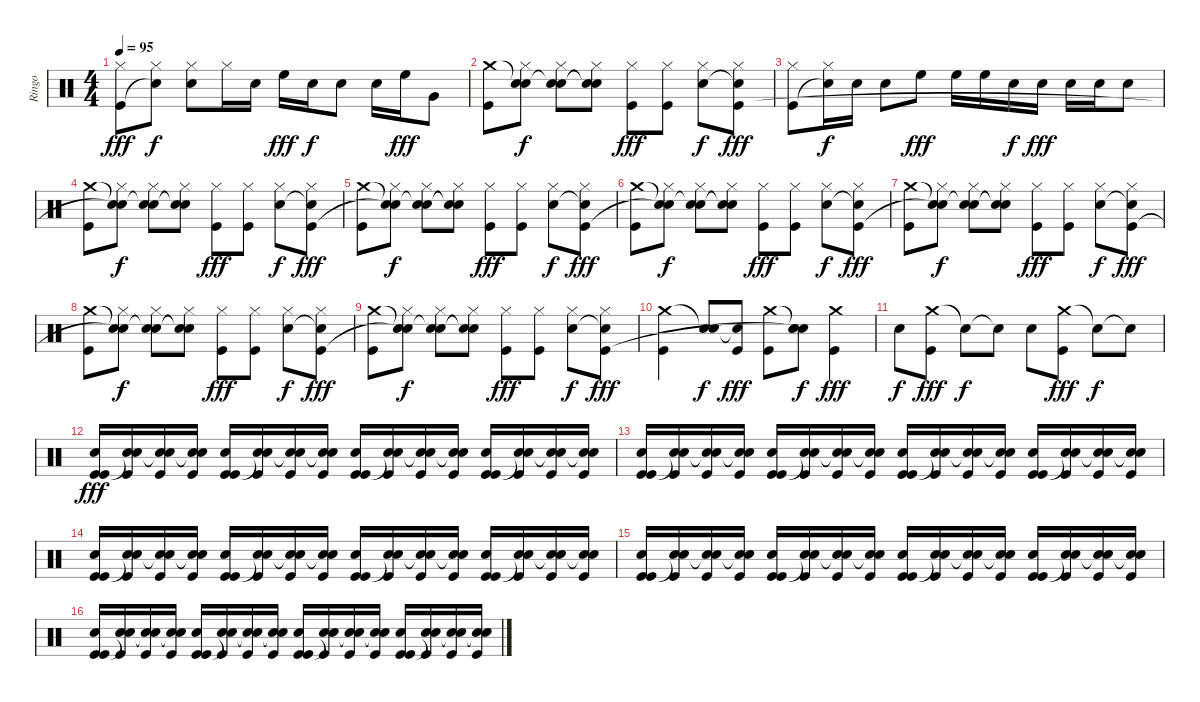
\track ("Ringo" "Ringo") {instrument percussion}
\staff {score}
\articulation defaults
\ts (4 4)
\tempo 95
\clef neutral
\ks c
("Hi-Hat (closed)" "Kick (hit)").8{dy fff} ("Hi-Hat (closed)" "Snare (hit)"{t}).8{dy f} ("Hi-Hat (closed)" "Electric Snare (hit)").8 "Hi-Hat (closed)".16 "Electric Snare (hit)".16 "High Floor Tom (hit)".16{dy fff} "Electric Snare (hit)".16{dy f} "Electric Snare (hit)".8 "Electric Snare (hit)".16 "High Floor Tom (hit)".16{dy fff} "Very Low Tom (hit)".8 |
("Crash medium (hit)" "Kick (hit)").8 ("Snare (hit)"{t} "Hi-Hat (closed)" "Snare (hit)"{t}).8{dy f} ("Snare (hit)"{t} "Hi-Hat (closed)" "Electric Snare (hit)").8 ("Snare (hit)"{t} "Hi-Hat (closed)" "Snare (hit)"{t}).8 ("Hi-Hat (closed)" "Kick (hit)").8{dy fff} ("Hi-Hat (closed)" "Kick (hit)").8 ("Hi-Hat (closed)" "Electric Snare (hit)").8{dy f} ("Hi-Hat (closed)" "Snare (hit)"{t} "Kick (hit)").8{dy fff} |
("Hi-Hat (closed)" "Kick (hit)").8 ("Hi-Hat (closed)" "Snare (hit)"{t}).16{dy f} "Electric Snare (hit)".16 "Electric Snare (hit)".8 "High Floor Tom (hit)".8{dy fff} "High Floor Tom (hit)".16 "High Floor Tom (hit)".16 "Electric Snare (hit)".16{dy f} "Electric Snare (hit)".16{dy fff} "Electric Snare (hit)".16 "Electric Snare (hit)".16 "Electric Snare (hit)".8 |
("Crash medium (hit)" "Kick (hit)").8 ("Snare (hit)"{t} "Hi-Hat (closed)" "Snare (hit)"{t}).8{dy f} ("Snare (hit)"{t} "Hi-Hat (closed)" "Electric Snare (hit)").8 ("Snare (hit)"{t} "Hi-Hat (closed)" "Snare (hit)"{t}).8 ("Hi-Hat (closed)" "Kick (hit)").8{dy fff} ("Hi-Hat (closed)" "Kick (hit)").8 ("Hi-Hat (closed)" "Electric Snare (hit)").8{dy f} ("Hi-Hat (closed)" "Snare (hit)"{t} "Kick (hit)").8{dy fff} |
("Crash medium (hit)" "Kick (hit)").8 ("Snare (hit)"{t} "Hi-Hat (closed)" "Snare (hit)"{t}).8{dy f} ("Snare (hit)"{t} "Hi-Hat (closed)" "Electric Snare (hit)").8 ("Snare (hit)"{t} "Hi-Hat (closed)" "Snare (hit)"{t}).8 ("Hi-Hat (closed)" "Kick (hit)").8{dy fff} ("Hi-Hat (closed)" "Kick (hit)").8 ("Hi-Hat (closed)" "Electric Snare (hit)").8{dy f} ("Hi-Hat (closed)" "Snare (hit)"{t} "Kick (hit)").8{dy fff} |
("Crash medium (hit)" "Kick (hit)").8 ("Snare (hit)"{t} "Hi-Hat (closed)" "Snare (hit)"{t}).8{dy f} ("Snare (hit)"{t} "Hi-Hat (closed)" "Electric Snare (hit)").8 ("Snare (hit)"{t} "Hi-Hat (closed)" "Snare (hit)"{t}).8 ("Hi-Hat (closed)" "Kick (hit)").8{dy fff} ("Hi-Hat (closed)" "Kick (hit)").8 ("Hi-Hat (closed)" "Electric Snare (hit)").8{dy f} ("Hi-Hat (closed)" "Snare (hit)"{t} "Kick (hit)").8{dy fff} |
("Crash medium (hit)" "Kick (hit)").8 ("Snare (hit)"{t} "Hi-Hat (closed)" "Snare (hit)"{t}).8{dy f} ("Snare (hit)"{t} "Hi-Hat (closed)" "Electric Snare (hit)").8 ("Snare (hit)"{t} "Hi-Hat (closed)" "Snare (hit)"{t}).8 ("Hi-Hat (closed)" "Kick (hit)").8{dy fff} ("Hi-Hat (closed)" "Kick (hit)").8 ("Hi-Hat (closed)" "Electric Snare (hit)").8{dy f} ("Hi-Hat (closed)" "Snare (hit)"{t} "Kick (hit)").8{dy fff} |
("Crash medium (hit)" "Kick (hit)").8 ("Snare (hit)"{t} "Hi-Hat (closed)" "Snare (hit)"{t}).8{dy f} ("Snare (hit)"{t} "Hi-Hat (closed)" "Electric Snare (hit)").8 ("Snare (hit)"{t} "Hi-Hat (closed)" "Snare (hit)"{t}).8 ("Hi-Hat (closed)" "Kick (hit)").8{dy fff} ("Hi-Hat (closed)" "Kick (hit)").8 ("Hi-Hat (closed)" "Electric Snare (hit)").8{dy f} ("Hi-Hat (closed)" "Snare (hit)"{t} "Kick (hit)").8{dy fff} |
("Crash medium (hit)" "Kick (hit)").8 ("Snare (hit)"{t} "Hi-Hat (closed)" "Snare (hit)"{t}).8{dy f} ("Snare (hit)"{t} "Hi-Hat (closed)" "Electric Snare (hit)").8 ("Snare (hit)"{t} "Hi-Hat (closed)" "Snare (hit)"{t}).8 ("Hi-Hat (closed)" "Kick (hit)").8{dy fff} ("Hi-Hat (closed)" "Kick (hit)").8 ("Hi-Hat (closed)" "Electric Snare (hit)").8{dy f} ("Hi-Hat (closed)" "Snare (hit)"{t} "Kick (hit)").8{dy fff} |
("Crash medium (hit)" "Kick (hit)").4 ("Snare (hit)"{t} "Electric Snare (hit)").8{dy f} ("Snare (hit)"{t} "Kick (hit)").8{dy fff} ("Crash medium (hit)" "Kick (hit)").8 ("Snare (hit)"{t} "Electric Snare (hit)" "Snare (hit)"{t}).8{dy f} ("Crash medium (hit)" "Kick (hit)").4{dy fff} |
"Electric Snare (hit)".8{dy f} ("Crash medium (hit)" "Kick (hit)").8{dy fff} "Snare (hit)"{t}.8{dy f} "Snare (hit)"{t}.8 "Electric Snare (hit)".8 ("Crash medium (hit)" "Kick (hit)").8{dy fff} "Snare (hit)"{t}.8{dy f} "Snare (hit)"{t}.8 |
("Electric Snare (hit)" "Kick (hit)" "Kick (hit)").16{dy fff} ("Electric Snare (hit)" "Snare (hit)"{t} "Kick (hit)").16 ("Electric Snare (hit)" "Snare (hit)"{t} "Kick (hit)").16 ("Electric Snare (hit)" "Snare (hit)"{t} "Kick (hit)").16 ("Electric Snare (hit)" "Kick (hit)" "Kick (hit)").16 ("Electric Snare (hit)" "Snare (hit)"{t} "Kick (hit)").16 ("Electric Snare (hit)" "Snare (hit)"{t} "Kick (hit)").16 ("Electric Snare (hit)" "Snare (hit)"{t} "Kick (hit)").16 ("Electric Snare (hit)" "Kick (hit)" "Kick (hit)").16 ("Electric Snare (hit)" "Snare (hit)"{t} "Kick (hit)").16 ("Electric Snare (hit)" "Snare (hit)"{t} "Kick (hit)").16 ("Electric Snare (hit)" "Snare (hit)"{t} "Kick (hit)").16 ("Electric Snare (hit)" "Kick (hit)" "Kick (hit)").16 ("Electric Snare (hit)" "Snare (hit)"{t} "Kick (hit)").16 ("Electric Snare (hit)" "Snare (hit)"{t} "Kick (hit)").16 ("Electric Snare (hit)" "Snare (hit)"{t} "Kick (hit)").16 |
("Electric Snare (hit)" "Kick (hit)" "Kick (hit)").16 ("Electric Snare (hit)" "Snare (hit)"{t} "Kick (hit)").16 ("Electric Snare (hit)" "Snare (hit)"{t} "Kick (hit)").16 ("Electric Snare (hit)" "Snare (hit)"{t} "Kick (hit)").16 ("Electric Snare (hit)" "Kick (hit)" "Kick (hit)").16 ("Electric Snare (hit)" "Snare (hit)"{t} "Kick (hit)").16 ("Electric Snare (hit)" "Snare (hit)"{t} "Kick (hit)").16 ("Electric Snare (hit)" "Snare (hit)"{t} "Kick (hit)").16 ("Electric Snare (hit)" "Kick (hit)" "Kick (hit)").16 ("Electric Snare (hit)" "Snare (hit)"{t} "Kick (hit)").16 ("Electric Snare (hit)" "Snare (hit)"{t} "Kick (hit)").16 ("Electric Snare (hit)" "Snare (hit)"{t} "Kick (hit)").16 ("Electric Snare (hit)" "Kick (hit)" "Kick (hit)").16 ("Electric Snare (hit)" "Snare (hit)"{t} "Kick (hit)").16 ("Electric Snare (hit)" "Snare (hit)"{t} "Kick (hit)").16 ("Electric Snare (hit)" "Snare (hit)"{t} "Kick (hit)").16 |
("Electric Snare (hit)" "Kick (hit)" "Kick (hit)").16 ("Electric Snare (hit)" "Snare (hit)"{t} "Kick (hit)").16 ("Electric Snare (hit)" "Snare (hit)"{t} "Kick (hit)").16 ("Electric Snare (hit)" "Snare (hit)"{t} "Kick (hit)").16 ("Electric Snare (hit)" "Kick (hit)" "Kick (hit)").16 ("Electric Snare (hit)" "Snare (hit)"{t} "Kick (hit)").16 ("Electric Snare (hit)" "Snare (hit)"{t} "Kick (hit)").16 ("Electric Snare (hit)" "Snare (hit)"{t} "Kick (hit)").16 ("Electric Snare (hit)" "Kick (hit)" "Kick (hit)").16 ("Electric Snare (hit)" "Snare (hit)"{t} "Kick (hit)").16 ("Electric Snare (hit)" "Snare (hit)"{t} "Kick (hit)").16 ("Electric Snare (hit)" "Snare (hit)"{t} "Kick (hit)").16 ("Electric Snare (hit)" "Kick (hit)" "Kick (hit)").16 ("Electric Snare (hit)" "Snare (hit)"{t} "Kick (hit)").16 ("Electric Snare (hit)" "Snare (hit)"{t} "Kick (hit)").16 ("Electric Snare (hit)" "Snare (hit)"{t} "Kick (hit)").16 |
("Electric Snare (hit)" "Kick (hit)" "Kick (hit)").16 ("Electric Snare (hit)" "Snare (hit)"{t} "Kick (hit)").16 ("Electric Snare (hit)" "Snare (hit)"{t} "Kick (hit)").16 ("Electric Snare (hit)" "Snare (hit)"{t} "Kick (hit)").16 ("Electric Snare (hit)" "Kick (hit)" "Kick (hit)").16 ("Electric Snare (hit)" "Snare (hit)"{t} "Kick (hit)").16 ("Electric Snare (hit)" "Snare (hit)"{t} "Kick (hit)").16 ("Electric Snare (hit)" "Snare (hit)"{t} "Kick (hit)").16 ("Electric Snare (hit)" "Kick (hit)" "Kick (hit)").16 ("Electric Snare (hit)" "Snare (hit)"{t} "Kick (hit)").16 ("Electric Snare (hit)" "Snare (hit)"{t} "Kick (hit)").16 ("Electric Snare (hit)" "Snare (hit)"{t} "Kick (hit)").16 ("Electric Snare (hit)" "Kick (hit)" "Kick (hit)").16 ("Electric Snare (hit)" "Snare (hit)"{t} "Kick (hit)").16 ("Electric Snare (hit)" "Snare (hit)"{t} "Kick (hit)").16 ("Electric Snare (hit)" "Snare (hit)"{t} "Kick (hit)").16 |
("Electric Snare (hit)" "Kick (hit)" "Kick (hit)").16 ("Electric Snare (hit)" "Snare (hit)"{t} "Kick (hit)").16 ("Electric Snare (hit)" "Snare (hit)"{t} "Kick (hit)").16 ("Electric Snare (hit)" "Snare (hit)"{t} "Kick (hit)").16 ("Electric Snare (hit)" "Kick (hit)" "Kick (hit)").16 ("Electric Snare (hit)" "Snare (hit)"{t} "Kick (hit)").16 ("Electric Snare (hit)" "Snare (hit)"{t} "Kick (hit)").16 ("Electric Snare (hit)" "Snare (hit)"{t} "Kick (hit)").16 ("Electric Snare (hit)" "Kick (hit)" "Kick (hit)").16 ("Electric Snare (hit)" "Snare (hit)"{t} "Kick (hit)").16 ("Electric Snare (hit)" "Snare (hit)"{t} "Kick (hit)").16 ("Electric Snare (hit)" "Snare (hit)"{t} "Kick (hit)").16 ("Electric Snare (hit)" "Kick (hit)" "Kick (hit)").16 ("Electric Snare (hit)" "Snare (hit)"{t} "Kick (hit)").16 ("Electric Snare (hit)" "Snare (hit)"{t} "Kick (hit)").16 ("Electric Snare (hit)" "Snare (hit)"{t} "Kick (hit)").16
